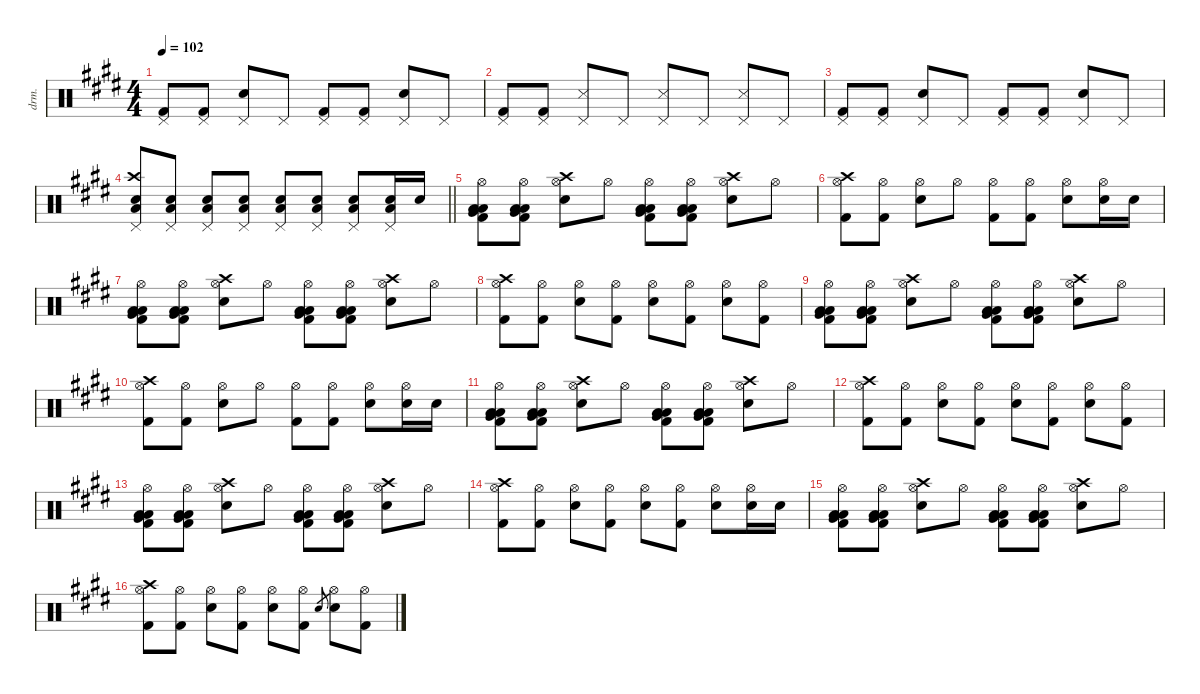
\defaultSystemsLayout 4
\hideDynamics
\bracketExtendMode nobrackets
\otherSystemsTrackNameOrientation horizontal
\track ("Percussion" "drm.") {instrument percussion}
\staff {score}
\articulation defaults
\ts (4 4)
\tempo 102
\clef neutral
\ks c#minor
("Kick (hit) 2"{acc forcenatural} "Pedal Hi-Hat (hit)"{acc forcenatural}).8{dy f beam Up} ("Kick (hit) 2"{acc forcenatural} "Pedal Hi-Hat (hit)"{acc forcenatural}).8{beam Up} ("Snare (hit) 2"{acc forcenatural} "Pedal Hi-Hat (hit)"{acc forcenatural}).8{beam Up} "Pedal Hi-Hat (hit)"{acc forcenatural}.8{beam Up} ("Kick (hit) 2"{acc forcenatural} "Pedal Hi-Hat (hit)"{acc forcenatural}).8{beam Up} ("Kick (hit) 2"{acc forcenatural} "Pedal Hi-Hat (hit)"{acc forcenatural}).8{beam Up} ("Snare (hit) 2"{acc forcenatural} "Pedal Hi-Hat (hit)"{acc forcenatural}).8{beam Up} "Pedal Hi-Hat (hit)"{acc forcenatural}.8{beam Up} |
("Kick (hit) 2"{acc forcenatural} "Pedal Hi-Hat (hit)"{acc forcenatural}).8{beam Up} ("Kick (hit) 2"{acc forcenatural} "Pedal Hi-Hat (hit)"{acc forcenatural}).8{beam Up} ("Metronome (hit)"{acc forcenatural} "Pedal Hi-Hat (hit)"{acc forcenatural}).8{beam Up} "Pedal Hi-Hat (hit)"{acc forcenatural}.8{beam Up} ("Metronome (hit)"{acc forcenatural} "Pedal Hi-Hat (hit)"{acc forcenatural}).8{beam Up} "Pedal Hi-Hat (hit)"{acc forcenatural}.8{beam Up} ("Metronome (hit)"{acc forcenatural} "Pedal Hi-Hat (hit)"{acc forcenatural}).8{beam Up} "Pedal Hi-Hat (hit)"{acc forcenatural}.8{beam Up} |
("Kick (hit) 2"{acc forcenatural} "Pedal Hi-Hat (hit)"{acc forcenatural}).8{beam Up} ("Kick (hit) 2"{acc forcenatural} "Pedal Hi-Hat (hit)"{acc forcenatural}).8{beam Up} ("Snare (hit) 2"{acc forcenatural} "Pedal Hi-Hat (hit)"{acc forcenatural}).8{beam Up} "Pedal Hi-Hat (hit)"{acc forcenatural}.8{beam Up} ("Kick (hit) 2"{acc forcenatural} "Pedal Hi-Hat (hit)"{acc forcenatural}).8{beam Up} ("Kick (hit) 2"{acc forcenatural} "Pedal Hi-Hat (hit)"{acc forcenatural}).8{beam Up} ("Snare (hit) 2"{acc forcenatural} "Pedal Hi-Hat (hit)"{acc forcenatural}).8{beam Up} "Pedal Hi-Hat (hit)"{acc forcenatural}.8{beam Up} |
\barLineRight lightlight
("Snare (hit) 2"{acc forcenatural} "Low Tom (hit)"{acc forcenatural} "Crash high (hit)"{acc forcenatural} "Pedal Hi-Hat (hit)"{acc forcenatural}).8{dy mp beam Up} ("Snare (hit) 2"{acc forcenatural} "Low Tom (hit)"{acc forcenatural} "Pedal Hi-Hat (hit)"{acc forcenatural}).8{beam Up} ("Snare (hit) 2"{acc forcenatural} "Low Tom (hit)"{acc forcenatural} "Pedal Hi-Hat (hit)"{acc forcenatural}).8{dy mf beam Up} ("Snare (hit) 2"{acc forcenatural} "Low Tom (hit)"{acc forcenatural} "Pedal Hi-Hat (hit)"{acc forcenatural}).8{beam Up} ("Snare (hit) 2"{acc forcenatural} "Low Tom (hit)"{acc forcenatural} "Pedal Hi-Hat (hit)"{acc forcenatural}).8{dy f beam Up} ("Snare (hit) 2"{acc forcenatural} "Low Tom (hit)"{acc forcenatural} "Pedal Hi-Hat (hit)"{acc forcenatural}).8{beam Up} ("Snare (hit) 2"{acc forcenatural} "Low Tom (hit)"{acc forcenatural} "Pedal Hi-Hat (hit)"{acc forcenatural}).8{beam Up} ("Snare (hit) 2"{acc forcenatural} "Low Tom (hit)"{acc forcenatural} "Pedal Hi-Hat (hit)"{acc forcenatural}).16{beam Up} "Snare (hit) 2"{acc forcenatural}.16{beam Up} |
("Kick (hit) 2"{acc forcenatural} "Hi-Hat (open)"{acc forcenatural} "Low Tom (hit)"{acc forcenatural} "Very Low Tom (hit)"{acc forcenatural} "Low Floor Tom (hit)"{acc forcenatural}).8{beam Down} ("Kick (hit) 2"{acc forcenatural} "Hi-Hat (open)"{acc forcenatural} "Low Tom (hit)"{acc forcenatural} "Very Low Tom (hit)"{acc forcenatural} "Low Floor Tom (hit)"{acc forcenatural}).8{beam Down} ("Snare (hit) 2"{acc forcenatural} "Hi-Hat (open)"{acc forcenatural} "Crash high (hit)"{acc forcenatural}).8{beam Down} "Hi-Hat (open)"{acc forcenatural}.8{beam Down} ("Kick (hit) 2"{acc forcenatural} "Hi-Hat (open)"{acc forcenatural} "Low Tom (hit)"{acc forcenatural} "Very Low Tom (hit)"{acc forcenatural} "Low Floor Tom (hit)"{acc forcenatural}).8{beam Down} ("Kick (hit) 2"{acc forcenatural} "Hi-Hat (open)"{acc forcenatural} "Low Tom (hit)"{acc forcenatural} "Very Low Tom (hit)"{acc forcenatural} "Low Floor Tom (hit)"{acc forcenatural}).8{beam Down} ("Snare (hit) 2"{acc forcenatural} "Hi-Hat (open)"{acc forcenatural} "Crash high (hit)"{acc forcenatural}).8{beam Down} "Hi-Hat (open)"{acc forcenatural}.8{beam Down} |
("Kick (hit) 2"{acc forcenatural} "Hi-Hat (open)"{acc forcenatural} "Crash high (hit)"{acc forcenatural}).8{beam Down} ("Kick (hit) 2"{acc forcenatural} "Hi-Hat (open)"{acc forcenatural}).8{beam Down} ("Snare (hit) 2"{acc forcenatural} "Hi-Hat (open)"{acc forcenatural}).8{beam Down} "Hi-Hat (open)"{acc forcenatural}.8{beam Down} ("Kick (hit) 2"{acc forcenatural} "Hi-Hat (open)"{acc forcenatural}).8{beam Down} ("Kick (hit) 2"{acc forcenatural} "Hi-Hat (open)"{acc forcenatural}).8{beam Down} ("Snare (hit) 2"{acc forcenatural} "Hi-Hat (open)"{acc forcenatural}).8{beam Down} ("Snare (hit) 2"{acc forcenatural} "Hi-Hat (open)"{acc forcenatural}).16{beam Down} "Snare (hit) 2"{acc forcenatural}.16{beam Down} |
("Kick (hit) 2"{acc forcenatural} "Hi-Hat (open)"{acc forcenatural} "Low Tom (hit)"{acc forcenatural} "Very Low Tom (hit)"{acc forcenatural} "Low Floor Tom (hit)"{acc forcenatural}).8{beam Down} ("Kick (hit) 2"{acc forcenatural} "Hi-Hat (open)"{acc forcenatural} "Low Tom (hit)"{acc forcenatural} "Very Low Tom (hit)"{acc forcenatural} "Low Floor Tom (hit)"{acc forcenatural}).8{beam Down} ("Snare (hit) 2"{acc forcenatural} "Hi-Hat (open)"{acc forcenatural} "Crash high (hit)"{acc forcenatural}).8{beam Down} "Hi-Hat (open)"{acc forcenatural}.8{beam Down} ("Kick (hit) 2"{acc forcenatural} "Hi-Hat (open)"{acc forcenatural} "Low Tom (hit)"{acc forcenatural} "Very Low Tom (hit)"{acc forcenatural} "Low Floor Tom (hit)"{acc forcenatural}).8{beam Down} ("Kick (hit) 2"{acc forcenatural} "Hi-Hat (open)"{acc forcenatural} "Low Tom (hit)"{acc forcenatural} "Very Low Tom (hit)"{acc forcenatural} "Low Floor Tom (hit)"{acc forcenatural}).8{beam Down} ("Snare (hit) 2"{acc forcenatural} "Hi-Hat (open)"{acc forcenatural} "Crash high (hit)"{acc forcenatural}).8{beam Down} "Hi-Hat (open)"{acc forcenatural}.8{beam Down} |
("Kick (hit) 2"{acc forcenatural} "Hi-Hat (open)"{acc forcenatural} "Crash high (hit)"{acc forcenatural}).8{beam Down} ("Kick (hit) 2"{acc forcenatural} "Hi-Hat (open)"{acc forcenatural}).8{beam Down} ("Snare (hit) 2"{acc forcenatural} "Hi-Hat (open)"{acc forcenatural}).8{beam Down} ("Kick (hit) 2"{acc forcenatural} "Hi-Hat (open)"{acc forcenatural}).8{beam Down} ("Snare (hit) 2"{acc forcenatural} "Hi-Hat (open)"{acc forcenatural}).8{beam Down} ("Kick (hit) 2"{acc forcenatural} "Hi-Hat (open)"{acc forcenatural}).8{beam Down} ("Snare (hit) 2"{acc forcenatural} "Hi-Hat (open)"{acc forcenatural}).8{beam Down} ("Kick (hit) 2"{acc forcenatural} "Hi-Hat (open)"{acc forcenatural}).8{beam Down} |
("Kick (hit) 2"{acc forcenatural} "Hi-Hat (open)"{acc forcenatural} "Low Tom (hit)"{acc forcenatural} "Very Low Tom (hit)"{acc forcenatural} "Low Floor Tom (hit)"{acc forcenatural}).8{beam Down} ("Kick (hit) 2"{acc forcenatural} "Hi-Hat (open)"{acc forcenatural} "Low Tom (hit)"{acc forcenatural} "Very Low Tom (hit)"{acc forcenatural} "Low Floor Tom (hit)"{acc forcenatural}).8{beam Down} ("Snare (hit) 2"{acc forcenatural} "Hi-Hat (open)"{acc forcenatural} "Crash high (hit)"{acc forcenatural}).8{beam Down} "Hi-Hat (open)"{acc forcenatural}.8{beam Down} ("Kick (hit) 2"{acc forcenatural} "Hi-Hat (open)"{acc forcenatural} "Low Tom (hit)"{acc forcenatural} "Very Low Tom (hit)"{acc forcenatural} "Low Floor Tom (hit)"{acc forcenatural}).8{beam Down} ("Kick (hit) 2"{acc forcenatural} "Hi-Hat (open)"{acc forcenatural} "Low Tom (hit)"{acc forcenatural} "Very Low Tom (hit)"{acc forcenatural} "Low Floor Tom (hit)"{acc forcenatural}).8{beam Down} ("Snare (hit) 2"{acc forcenatural} "Hi-Hat (open)"{acc forcenatural} "Crash high (hit)"{acc forcenatural}).8{beam Down} "Hi-Hat (open)"{acc forcenatural}.8{beam Down} |
("Kick (hit) 2"{acc forcenatural} "Hi-Hat (open)"{acc forcenatural} "Crash high (hit)"{acc forcenatural}).8{beam Down} ("Kick (hit) 2"{acc forcenatural} "Hi-Hat (open)"{acc forcenatural}).8{beam Down} ("Snare (hit) 2"{acc forcenatural} "Hi-Hat (open)"{acc forcenatural}).8{beam Down} "Hi-Hat (open)"{acc forcenatural}.8{beam Down} ("Kick (hit) 2"{acc forcenatural} "Hi-Hat (open)"{acc forcenatural}).8{beam Down} ("Kick (hit) 2"{acc forcenatural} "Hi-Hat (open)"{acc forcenatural}).8{beam Down} ("Snare (hit) 2"{acc forcenatural} "Hi-Hat (open)"{acc forcenatural}).8{beam Down} ("Snare (hit) 2"{acc forcenatural} "Hi-Hat (open)"{acc forcenatural}).16{beam Down} "Snare (hit) 2"{acc forcenatural}.16{beam Down} |
("Kick (hit) 2"{acc forcenatural} "Hi-Hat (open)"{acc forcenatural} "Low Tom (hit)"{acc forcenatural} "Very Low Tom (hit)"{acc forcenatural} "Low Floor Tom (hit)"{acc forcenatural}).8{beam Down} ("Kick (hit) 2"{acc forcenatural} "Hi-Hat (open)"{acc forcenatural} "Low Tom (hit)"{acc forcenatural} "Very Low Tom (hit)"{acc forcenatural} "Low Floor Tom (hit)"{acc forcenatural}).8{beam Down} ("Snare (hit) 2"{acc forcenatural} "Hi-Hat (open)"{acc forcenatural} "Crash high (hit)"{acc forcenatural}).8{beam Down} "Hi-Hat (open)"{acc forcenatural}.8{beam Down} ("Kick (hit) 2"{acc forcenatural} "Hi-Hat (open)"{acc forcenatural} "Low Tom (hit)"{acc forcenatural} "Very Low Tom (hit)"{acc forcenatural} "Low Floor Tom (hit)"{acc forcenatural}).8{beam Down} ("Kick (hit) 2"{acc forcenatural} "Hi-Hat (open)"{acc forcenatural} "Low Tom (hit)"{acc forcenatural} "Very Low Tom (hit)"{acc forcenatural} "Low Floor Tom (hit)"{acc forcenatural}).8{beam Down} ("Snare (hit) 2"{acc forcenatural} "Hi-Hat (open)"{acc forcenatural} "Crash high (hit)"{acc forcenatural}).8{beam Down} "Hi-Hat (open)"{acc forcenatural}.8{beam Down} |
("Kick (hit) 2"{acc forcenatural} "Hi-Hat (open)"{acc forcenatural} "Crash high (hit)"{acc forcenatural}).8{beam Down} ("Kick (hit) 2"{acc forcenatural} "Hi-Hat (open)"{acc forcenatural}).8{beam Down} ("Snare (hit) 2"{acc forcenatural} "Hi-Hat (open)"{acc forcenatural}).8{beam Down} ("Kick (hit) 2"{acc forcenatural} "Hi-Hat (open)"{acc forcenatural}).8{beam Down} ("Snare (hit) 2"{acc forcenatural} "Hi-Hat (open)"{acc forcenatural}).8{beam Down} ("Kick (hit) 2"{acc forcenatural} "Hi-Hat (open)"{acc forcenatural}).8{beam Down} ("Snare (hit) 2"{acc forcenatural} "Hi-Hat (open)"{acc forcenatural}).8{beam Down} ("Kick (hit) 2"{acc forcenatural} "Hi-Hat (open)"{acc forcenatural}).8{beam Down} |
("Kick (hit) 2"{acc forcenatural} "Hi-Hat (open)"{acc forcenatural} "Low Tom (hit)"{acc forcenatural} "Very Low Tom (hit)"{acc forcenatural} "Low Floor Tom (hit)"{acc forcenatural}).8{beam Down} ("Kick (hit) 2"{acc forcenatural} "Hi-Hat (open)"{acc forcenatural} "Low Tom (hit)"{acc forcenatural} "Very Low Tom (hit)"{acc forcenatural} "Low Floor Tom (hit)"{acc forcenatural}).8{beam Down} ("Snare (hit) 2"{acc forcenatural} "Hi-Hat (open)"{acc forcenatural} "Crash high (hit)"{acc forcenatural}).8{beam Down} "Hi-Hat (open)"{acc forcenatural}.8{beam Down} ("Kick (hit) 2"{acc forcenatural} "Hi-Hat (open)"{acc forcenatural} "Low Tom (hit)"{acc forcenatural} "Very Low Tom (hit)"{acc forcenatural} "Low Floor Tom (hit)"{acc forcenatural}).8{beam Down} ("Kick (hit) 2"{acc forcenatural} "Hi-Hat (open)"{acc forcenatural} "Low Tom (hit)"{acc forcenatural} "Very Low Tom (hit)"{acc forcenatural} "Low Floor Tom (hit)"{acc forcenatural}).8{beam Down} ("Snare (hit) 2"{acc forcenatural} "Hi-Hat (open)"{acc forcenatural} "Crash high (hit)"{acc forcenatural}).8{beam Down} "Hi-Hat (open)"{acc forcenatural}.8{beam Down} |
("Kick (hit) 2"{acc forcenatural} "Hi-Hat (open)"{acc forcenatural} "Crash high (hit)"{acc forcenatural}).8{beam Down} ("Kick (hit) 2"{acc forcenatural} "Hi-Hat (open)"{acc forcenatural}).8{beam Down} ("Snare (hit) 2"{acc forcenatural} "Hi-Hat (open)"{acc forcenatural}).8{beam Down} ("Kick (hit) 2"{acc forcenatural} "Hi-Hat (open)"{acc forcenatural}).8{beam Down} ("Snare (hit) 2"{acc forcenatural} "Hi-Hat (open)"{acc forcenatural}).8{beam Down} ("Kick (hit) 2"{acc forcenatural} "Hi-Hat (open)"{acc forcenatural}).8{beam Down} ("Snare (hit) 2"{acc forcenatural} "Hi-Hat (open)"{acc forcenatural}).8{beam Down} ("Snare (hit) 2"{acc forcenatural} "Hi-Hat (open)"{acc forcenatural}).16{beam Down} "Snare (hit) 2"{acc forcenatural}.16{beam Down} |
("Kick (hit) 2"{acc forcenatural} "Hi-Hat (open)"{acc forcenatural} "Low Tom (hit)"{acc forcenatural} "Very Low Tom (hit)"{acc forcenatural} "Low Floor Tom (hit)"{acc forcenatural}).8{beam Down} ("Kick (hit) 2"{acc forcenatural} "Hi-Hat (open)"{acc forcenatural} "Low Tom (hit)"{acc forcenatural} "Very Low Tom (hit)"{acc forcenatural} "Low Floor Tom (hit)"{acc forcenatural}).8{beam Down} ("Snare (hit) 2"{acc forcenatural} "Hi-Hat (open)"{acc forcenatural} "Crash high (hit)"{acc forcenatural}).8{beam Down} "Hi-Hat (open)"{acc forcenatural}.8{beam Down} ("Kick (hit) 2"{acc forcenatural} "Hi-Hat (open)"{acc forcenatural} "Low Tom (hit)"{acc forcenatural} "Very Low Tom (hit)"{acc forcenatural} "Low Floor Tom (hit)"{acc forcenatural}).8{beam Down} ("Kick (hit) 2"{acc forcenatural} "Hi-Hat (open)"{acc forcenatural} "Low Tom (hit)"{acc forcenatural} "Very Low Tom (hit)"{acc forcenatural} "Low Floor Tom (hit)"{acc forcenatural}).8{beam Down} ("Snare (hit) 2"{acc forcenatural} "Hi-Hat (open)"{acc forcenatural} "Crash high (hit)"{acc forcenatural}).8{beam Down} "Hi-Hat (open)"{acc forcenatural}.8{beam Down} |
("Kick (hit) 2"{acc forcenatural} "Hi-Hat (open)"{acc forcenatural} "Crash high (hit)"{acc forcenatural}).8{beam Down} ("Kick (hit) 2"{acc forcenatural} "Hi-Hat (open)"{acc forcenatural}).8{beam Down} ("Snare (hit) 2"{acc forcenatural} "Hi-Hat (open)"{acc forcenatural}).8{beam Down} ("Kick (hit) 2"{acc forcenatural} "Hi-Hat (open)"{acc forcenatural}).8{beam Down} ("Snare (hit) 2"{acc forcenatural} "Hi-Hat (open)"{acc forcenatural}).8{beam Down} ("Kick (hit) 2"{acc forcenatural} "Hi-Hat (open)"{acc forcenatural}).8{beam Down} "Snare (hit) 2"{acc forcenatural}.8{gr dy mf beam Up} ("Snare (hit) 2"{acc forcenatural} "Hi-Hat (open)"{acc forcenatural}).8{dy f beam Down} ("Kick (hit) 2"{acc forcenatural} "Hi-Hat (open)"{acc forcenatural}).8{beam Down}
